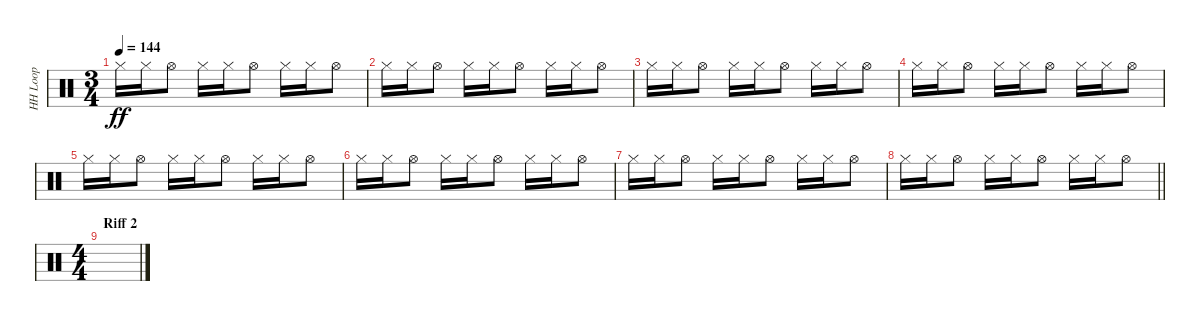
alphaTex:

\track ("HH Loop" "HH Loop") {instrument percussion}
\staff {score}
\articulation defaults
\ts (3 4)
\tempo 144
\clef neutral
\ks c "Hi-Hat (closed)".16{dy ff} "Hi-Hat (closed)".16 "Hi-Hat (open)".8 "Hi-Hat (closed)".16 "Hi-Hat (closed)".16 "Hi-Hat (open)".8 "Hi-Hat (closed)".16 "Hi-Hat (closed)".16 "Hi-Hat (open)".8
|
"Hi-Hat (closed)".16 "Hi-Hat (closed)".16 "Hi-Hat (open)".8 "Hi-Hat (closed)".16 "Hi-Hat (closed)".16 "Hi-Hat (open)".8 "Hi-Hat (closed)".16 "Hi-Hat (closed)".16 "Hi-Hat (open)".8 |
"Hi-Hat (closed)".16 "Hi-Hat (closed)".16 "Hi-Hat (open)".8 "Hi-Hat (closed)".16 "Hi-Hat (closed)".16 "Hi-Hat (open)".8 "Hi-Hat (closed)".16 "Hi-Hat (closed)".16 "Hi-Hat (open)".8 |
"Hi-Hat (closed)".16 "Hi-Hat (closed)".16 "Hi-Hat (open)".8 "Hi-Hat (closed)".16 "Hi-Hat (closed)".16 "Hi-Hat (open)".8 "Hi-Hat (closed)".16 "Hi-Hat (closed)".16 "Hi-Hat (open)".8 |
"Hi-Hat (closed)".16 "Hi-Hat (closed)".16 "Hi-Hat (open)".8 "Hi-Hat (closed)".16 "Hi-Hat (closed)".16 "Hi-Hat (open)".8 "Hi-Hat (closed)".16 "Hi-Hat (closed)".16 "Hi-Hat (open)".8 |
"Hi-Hat (closed)".16 "Hi-Hat (closed)".16 "Hi-Hat (open)".8 "Hi-Hat (closed)".16 "Hi-Hat (closed)".16 "Hi-Hat (open)".8 "Hi-Hat (closed)".16 "Hi-Hat (closed)".16 "Hi-Hat (open)".8 |
"Hi-Hat (closed)".16 "Hi-Hat (closed)".16 "Hi-Hat (open)".8 "Hi-Hat (closed)".16 "Hi-Hat (closed)".16 "Hi-Hat (open)".8 "Hi-Hat (closed)".16 "Hi-Hat (closed)".16 "Hi-Hat (open)".8 |
\barLineRight lightlight "Hi-Hat (closed)".16 "Hi-Hat (closed)".16 "Hi-Hat (open)".8 "Hi-Hat (closed)".16 "Hi-Hat (closed)".16 "Hi-Hat (open)".8 "Hi-Hat (closed)".16 "Hi-Hat (closed)".16 "Hi-Hat (open)".8
|
\ts (4 4)
\section ("" "Riff 2")
